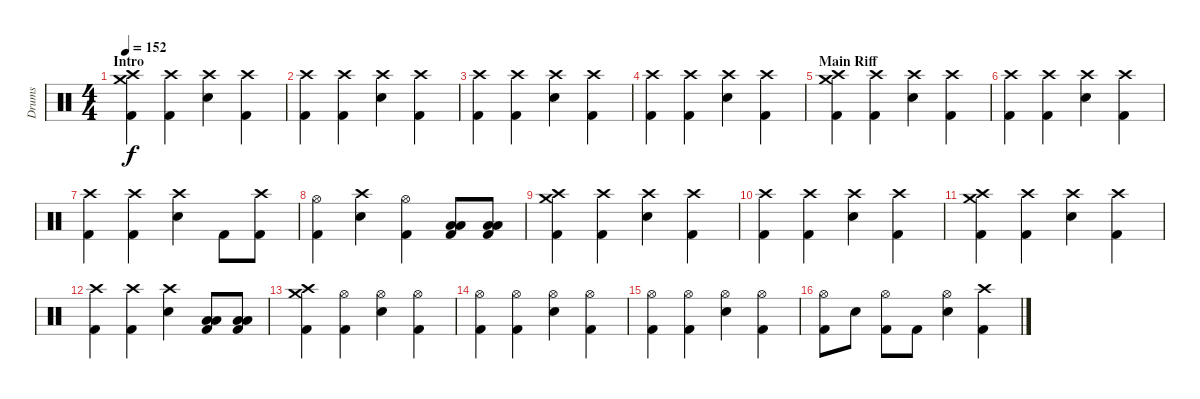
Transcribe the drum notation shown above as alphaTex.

\track ("Drums" "Drums") {instrument percussion}
\staff {score}
\articulation defaults
\ts (4 4)
\section ("" "Intro")
\tempo 152
\clef neutral
\ks c
("Crash high (hit)" "Crash medium (hit)" "Kick (hit) 2").4{dy f} ("Crash high (hit)" "Kick (hit) 2").4 ("Crash high (hit)" "Electric Snare (hit)").4 ("Crash high (hit)" "Kick (hit) 2").4 |
("Crash high (hit)" "Kick (hit) 2").4 ("Crash high (hit)" "Kick (hit) 2").4 ("Crash high (hit)" "Electric Snare (hit)").4 ("Crash high (hit)" "Kick (hit) 2").4 |
("Crash high (hit)" "Kick (hit) 2").4 ("Crash high (hit)" "Kick (hit) 2").4 ("Crash high (hit)" "Electric Snare (hit)").4 ("Crash high (hit)" "Kick (hit) 2").4 |
("Crash high (hit)" "Kick (hit) 2").4 ("Crash high (hit)" "Kick (hit) 2").4 ("Crash high (hit)" "Electric Snare (hit)").4 ("Crash high (hit)" "Kick (hit) 2").4 |
\section ("" "Main Riff")
("Crash high (hit)" "Crash medium (hit)" "Kick (hit) 2").4 ("Crash high (hit)" "Kick (hit) 2").4 ("Crash high (hit)" "Electric Snare (hit)").4 ("Crash high (hit)" "Kick (hit) 2").4 |
("Crash high (hit)" "Kick (hit) 2").4 ("Crash high (hit)" "Kick (hit) 2").4 ("Crash high (hit)" "Electric Snare (hit)").4 ("Crash high (hit)" "Kick (hit) 2").4 |
("Crash high (hit)" "Kick (hit) 2").4 ("Crash high (hit)" "Kick (hit) 2").4 ("Crash high (hit)" "Electric Snare (hit)").4 "Kick (hit) 2".8 ("Crash high (hit)" "Kick (hit) 2").8 |
("Hi-Hat (open)" "Kick (hit) 2").4 ("Crash high (hit)" "Electric Snare (hit)").4 ("Hi-Hat (open)" "Kick (hit) 2").4 ("Low Floor Tom (hit)" "Low Tom (hit)" "Kick (hit) 2").8 ("Low Floor Tom (hit)" "Low Tom (hit)" "Kick (hit) 2").8 |
("Crash high (hit)" "Crash medium (hit)" "Kick (hit) 2").4 ("Crash high (hit)" "Kick (hit) 2").4 ("Crash high (hit)" "Electric Snare (hit)").4 ("Crash high (hit)" "Kick (hit) 2").4 |
("Crash high (hit)" "Kick (hit) 2").4 ("Crash high (hit)" "Kick (hit) 2").4 ("Crash high (hit)" "Electric Snare (hit)").4 ("Crash high (hit)" "Kick (hit) 2").4 |
("Crash high (hit)" "Crash medium (hit)" "Kick (hit) 2").4 ("Crash high (hit)" "Kick (hit) 2").4 ("Crash high (hit)" "Electric Snare (hit)").4 ("Crash high (hit)" "Kick (hit) 2").4 |
("Crash high (hit)" "Kick (hit) 2").4 ("Crash high (hit)" "Kick (hit) 2").4 ("Crash high (hit)" "Electric Snare (hit)").4 ("Low Floor Tom (hit)" "Low Tom (hit)" "Kick (hit) 2").8 ("Low Floor Tom (hit)" "Low Tom (hit)" "Kick (hit) 2").8 |
("Crash high (hit)" "Crash medium (hit)" "Kick (hit) 2").4 ("Hi-Hat (open)" "Kick (hit) 2").4 ("Hi-Hat (open)" "Electric Snare (hit)").4 ("Hi-Hat (open)" "Kick (hit) 2").4 |
("Hi-Hat (open)" "Kick (hit) 2").4 ("Hi-Hat (open)" "Kick (hit) 2").4 ("Hi-Hat (open)" "Electric Snare (hit)").4 ("Hi-Hat (open)" "Kick (hit) 2").4 |
("Hi-Hat (open)" "Kick (hit) 2").4 ("Hi-Hat (open)" "Kick (hit) 2").4 ("Hi-Hat (open)" "Electric Snare (hit)").4 ("Hi-Hat (open)" "Kick (hit) 2").4 |
("Hi-Hat (open)" "Kick (hit) 2").8 "Electric Snare (hit)".8 ("Hi-Hat (open)" "Kick (hit) 2").8 "Kick (hit) 2".8 ("Hi-Hat (open)" "Electric Snare (hit)").4 ("Crash high (hit)" "Kick (hit) 2").4
